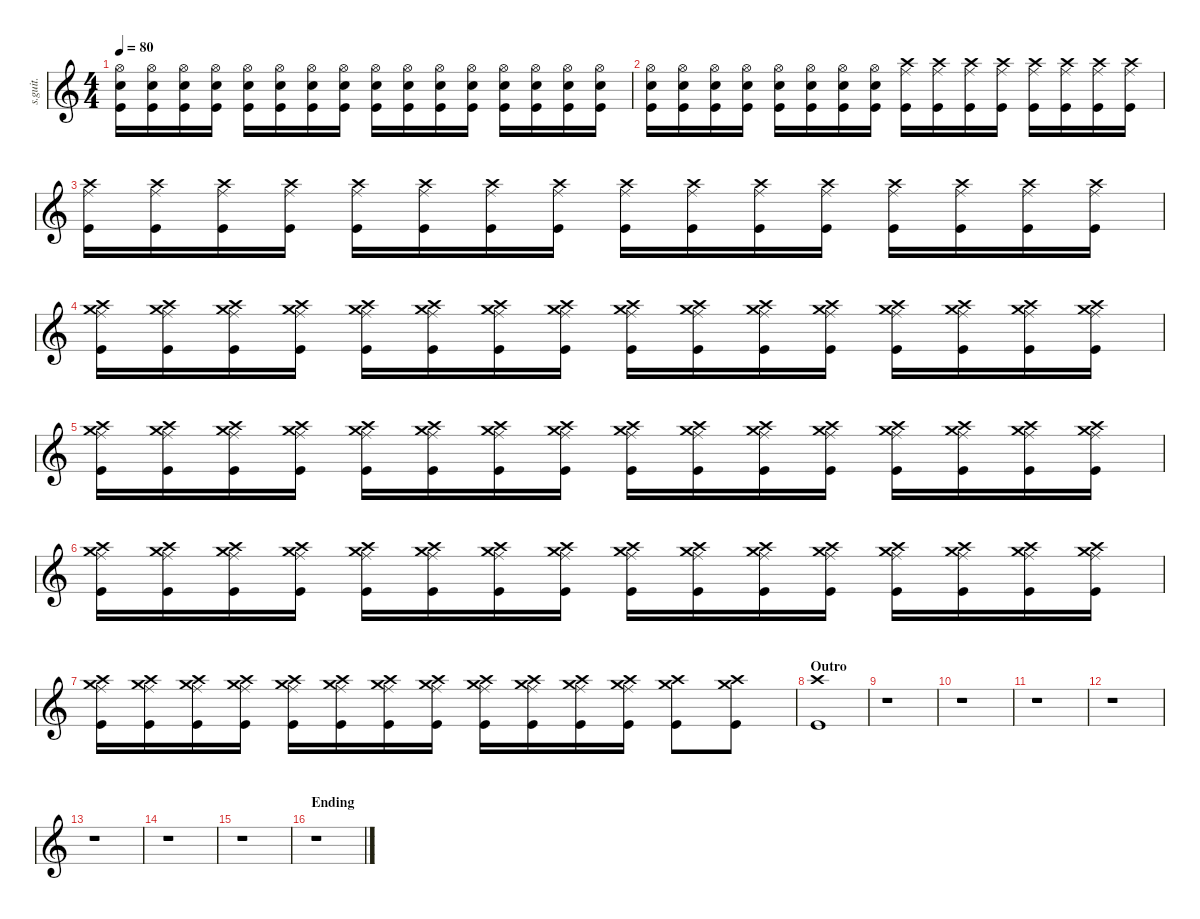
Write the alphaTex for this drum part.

\defaultSystemsLayout 4
\hideDynamics
\bracketExtendMode nobrackets
\track ("Drums (Wilson)" "s.guit.") {instrument percussion}
\staff {score}
\articulation defaults
\ts (4 4)
\tempo 80
\clef g2
\ks c
("Hi-Hat (open)" "Snare (hit) 2" "Kick (hit)").16{lyrics (0 "") lyrics (1 "") lyrics (2 "") lyrics (3 "") lyrics (4 "") dy mf} ("Hi-Hat (open)" "Snare (hit) 2" "Kick (hit)").16{lyrics (0 "") lyrics (1 "") lyrics (2 "") lyrics (3 "") lyrics (4 "")} ("Hi-Hat (open)" "Snare (hit) 2" "Kick (hit)").16{lyrics (0 "") lyrics (1 "") lyrics (2 "") lyrics (3 "") lyrics (4 "")} ("Hi-Hat (open)" "Snare (hit) 2" "Kick (hit)").16{lyrics (0 "") lyrics (1 "") lyrics (2 "") lyrics (3 "") lyrics (4 "")} ("Hi-Hat (open)" "Snare (hit) 2" "Kick (hit)").16{lyrics (0 "") lyrics (1 "") lyrics (2 "") lyrics (3 "") lyrics (4 "")} ("Hi-Hat (open)" "Snare (hit) 2" "Kick (hit)").16{lyrics (0 "") lyrics (1 "") lyrics (2 "") lyrics (3 "") lyrics (4 "")} ("Hi-Hat (open)" "Snare (hit) 2" "Kick (hit)").16{lyrics (0 "") lyrics (1 "") lyrics (2 "") lyrics (3 "") lyrics (4 "")} ("Hi-Hat (open)" "Snare (hit) 2" "Kick (hit)").16{lyrics (0 "") lyrics (1 "") lyrics (2 "") lyrics (3 "") lyrics (4 "")} ("Hi-Hat (open)" "Snare (hit) 2" "Kick (hit)").16{lyrics (0 "") lyrics (1 "") lyrics (2 "") lyrics (3 "") lyrics (4 "") dy f} ("Hi-Hat (open)" "Snare (hit) 2" "Kick (hit)").16{lyrics (0 "") lyrics (1 "") lyrics (2 "") lyrics (3 "") lyrics (4 "")} ("Hi-Hat (open)" "Snare (hit) 2" "Kick (hit)").16{lyrics (0 "") lyrics (1 "") lyrics (2 "") lyrics (3 "") lyrics (4 "")} ("Hi-Hat (open)" "Snare (hit) 2" "Kick (hit)").16{lyrics (0 "") lyrics (1 "") lyrics (2 "") lyrics (3 "") lyrics (4 "")} ("Hi-Hat (open)" "Snare (hit) 2" "Kick (hit)").16{lyrics (0 "") lyrics (1 "") lyrics (2 "") lyrics (3 "") lyrics (4 "")} ("Hi-Hat (open)" "Snare (hit) 2" "Kick (hit)").16{lyrics (0 "") lyrics (1 "") lyrics (2 "") lyrics (3 "") lyrics (4 "")} ("Hi-Hat (open)" "Snare (hit) 2" "Kick (hit)").16{lyrics (0 "") lyrics (1 "") lyrics (2 "") lyrics (3 "") lyrics (4 "")} ("Hi-Hat (open)" "Snare (hit) 2" "Kick (hit)").16{lyrics (0 "") lyrics (1 "") lyrics (2 "") lyrics (3 "") lyrics (4 "")} |
("Hi-Hat (open)" "Snare (hit) 2" "Kick (hit)").16{lyrics (0 "") lyrics (1 "") lyrics (2 "") lyrics (3 "") lyrics (4 "")} ("Hi-Hat (open)" "Snare (hit) 2" "Kick (hit)").16{lyrics (0 "") lyrics (1 "") lyrics (2 "") lyrics (3 "") lyrics (4 "")} ("Hi-Hat (open)" "Snare (hit) 2" "Kick (hit)").16{lyrics (0 "") lyrics (1 "") lyrics (2 "") lyrics (3 "") lyrics (4 "")} ("Hi-Hat (open)" "Snare (hit) 2" "Kick (hit)").16{lyrics (0 "") lyrics (1 "") lyrics (2 "") lyrics (3 "") lyrics (4 "")} ("Hi-Hat (open)" "Snare (hit) 2" "Kick (hit)").16{lyrics (0 "") lyrics (1 "") lyrics (2 "") lyrics (3 "") lyrics (4 "")} ("Hi-Hat (open)" "Snare (hit) 2" "Kick (hit)").16{lyrics (0 "") lyrics (1 "") lyrics (2 "") lyrics (3 "") lyrics (4 "")} ("Hi-Hat (open)" "Snare (hit) 2" "Kick (hit)").16{lyrics (0 "") lyrics (1 "") lyrics (2 "") lyrics (3 "") lyrics (4 "")} ("Hi-Hat (open)" "Snare (hit) 2" "Kick (hit)").16{lyrics (0 "") lyrics (1 "") lyrics (2 "") lyrics (3 "") lyrics (4 "")} ("Crash high (hit)" "Ride (middle)" "Kick (hit)").16{lyrics (0 "") lyrics (1 "") lyrics (2 "") lyrics (3 "") lyrics (4 "") dy p} ("Crash high (hit)" "Ride (middle)" "Kick (hit)").16{lyrics (0 "") lyrics (1 "") lyrics (2 "") lyrics (3 "") lyrics (4 "")} ("Crash high (hit)" "Ride (middle)" "Kick (hit)").16{lyrics (0 "") lyrics (1 "") lyrics (2 "") lyrics (3 "") lyrics (4 "")} ("Crash high (hit)" "Ride (middle)" "Kick (hit)").16{lyrics (0 "") lyrics (1 "") lyrics (2 "") lyrics (3 "") lyrics (4 "")} ("Crash high (hit)" "Ride (middle)" "Kick (hit)").16{lyrics (0 "") lyrics (1 "") lyrics (2 "") lyrics (3 "") lyrics (4 "") dy mp} ("Crash high (hit)" "Ride (middle)" "Kick (hit)").16{lyrics (0 "") lyrics (1 "") lyrics (2 "") lyrics (3 "") lyrics (4 "")} ("Crash high (hit)" "Ride (middle)" "Kick (hit)").16{lyrics (0 "") lyrics (1 "") lyrics (2 "") lyrics (3 "") lyrics (4 "")} ("Crash high (hit)" "Ride (middle)" "Kick (hit)").16{lyrics (0 "") lyrics (1 "") lyrics (2 "") lyrics (3 "") lyrics (4 "")} |
("Crash high (hit)" "Ride (middle)" "Kick (hit)").16{lyrics (0 "") lyrics (1 "") lyrics (2 "") lyrics (3 "") lyrics (4 "") dy mf} ("Crash high (hit)" "Ride (middle)" "Kick (hit)").16{lyrics (0 "") lyrics (1 "") lyrics (2 "") lyrics (3 "") lyrics (4 "")} ("Crash high (hit)" "Ride (middle)" "Kick (hit)").16{lyrics (0 "") lyrics (1 "") lyrics (2 "") lyrics (3 "") lyrics (4 "")} ("Crash high (hit)" "Ride (middle)" "Kick (hit)").16{lyrics (0 "") lyrics (1 "") lyrics (2 "") lyrics (3 "") lyrics (4 "")} ("Crash high (hit)" "Ride (middle)" "Kick (hit)").16{lyrics (0 "") lyrics (1 "") lyrics (2 "") lyrics (3 "") lyrics (4 "")} ("Crash high (hit)" "Ride (middle)" "Kick (hit)").16{lyrics (0 "") lyrics (1 "") lyrics (2 "") lyrics (3 "") lyrics (4 "")} ("Crash high (hit)" "Ride (middle)" "Kick (hit)").16{lyrics (0 "") lyrics (1 "") lyrics (2 "") lyrics (3 "") lyrics (4 "")} ("Crash high (hit)" "Ride (middle)" "Kick (hit)").16{lyrics (0 "") lyrics (1 "") lyrics (2 "") lyrics (3 "") lyrics (4 "")} ("Crash high (hit)" "Ride (middle)" "Kick (hit)").16{lyrics (0 "") lyrics (1 "") lyrics (2 "") lyrics (3 "") lyrics (4 "") dy f} ("Crash high (hit)" "Ride (middle)" "Kick (hit)").16{lyrics (0 "") lyrics (1 "") lyrics (2 "") lyrics (3 "") lyrics (4 "")} ("Crash high (hit)" "Ride (middle)" "Kick (hit)").16{lyrics (0 "") lyrics (1 "") lyrics (2 "") lyrics (3 "") lyrics (4 "")} ("Crash high (hit)" "Ride (middle)" "Kick (hit)").16{lyrics (0 "") lyrics (1 "") lyrics (2 "") lyrics (3 "") lyrics (4 "")} ("Crash high (hit)" "Ride (middle)" "Kick (hit)").16{lyrics (0 "") lyrics (1 "") lyrics (2 "") lyrics (3 "") lyrics (4 "")} ("Crash high (hit)" "Ride (middle)" "Kick (hit)").16{lyrics (0 "") lyrics (1 "") lyrics (2 "") lyrics (3 "") lyrics (4 "")} ("Crash high (hit)" "Ride (middle)" "Kick (hit)").16{lyrics (0 "") lyrics (1 "") lyrics (2 "") lyrics (3 "") lyrics (4 "")} ("Crash high (hit)" "Ride (middle)" "Kick (hit)").16{lyrics (0 "") lyrics (1 "") lyrics (2 "") lyrics (3 "") lyrics (4 "")} |
("Crash high (hit)" "Ride (middle)" "Crash medium (hit)" "Kick (hit)").16{lyrics (0 "") lyrics (1 "") lyrics (2 "") lyrics (3 "") lyrics (4 "")} ("Crash high (hit)" "Ride (middle)" "Crash medium (hit)" "Kick (hit)").16{lyrics (0 "") lyrics (1 "") lyrics (2 "") lyrics (3 "") lyrics (4 "")} ("Crash high (hit)" "Ride (middle)" "Crash medium (hit)" "Kick (hit)").16{lyrics (0 "") lyrics (1 "") lyrics (2 "") lyrics (3 "") lyrics (4 "")} ("Crash high (hit)" "Ride (middle)" "Crash medium (hit)" "Kick (hit)").16{lyrics (0 "") lyrics (1 "") lyrics (2 "") lyrics (3 "") lyrics (4 "")} ("Crash high (hit)" "Ride (middle)" "Crash medium (hit)" "Kick (hit)").16{lyrics (0 "") lyrics (1 "") lyrics (2 "") lyrics (3 "") lyrics (4 "")} ("Crash high (hit)" "Ride (middle)" "Crash medium (hit)" "Kick (hit)").16{lyrics (0 "") lyrics (1 "") lyrics (2 "") lyrics (3 "") lyrics (4 "")} ("Crash high (hit)" "Ride (middle)" "Crash medium (hit)" "Kick (hit)").16{lyrics (0 "") lyrics (1 "") lyrics (2 "") lyrics (3 "") lyrics (4 "")} ("Crash high (hit)" "Ride (middle)" "Crash medium (hit)" "Kick (hit)").16{lyrics (0 "") lyrics (1 "") lyrics (2 "") lyrics (3 "") lyrics (4 "")} ("Crash high (hit)" "Ride (middle)" "Crash medium (hit)" "Kick (hit)").16{lyrics (0 "") lyrics (1 "") lyrics (2 "") lyrics (3 "") lyrics (4 "")} ("Crash high (hit)" "Ride (middle)" "Crash medium (hit)" "Kick (hit)").16{lyrics (0 "") lyrics (1 "") lyrics (2 "") lyrics (3 "") lyrics (4 "")} ("Crash high (hit)" "Ride (middle)" "Crash medium (hit)" "Kick (hit)").16{lyrics (0 "") lyrics (1 "") lyrics (2 "") lyrics (3 "") lyrics (4 "")} ("Crash high (hit)" "Ride (middle)" "Crash medium (hit)" "Kick (hit)").16{lyrics (0 "") lyrics (1 "") lyrics (2 "") lyrics (3 "") lyrics (4 "")} ("Crash high (hit)" "Ride (middle)" "Crash medium (hit)" "Kick (hit)").16{lyrics (0 "") lyrics (1 "") lyrics (2 "") lyrics (3 "") lyrics (4 "")} ("Crash high (hit)" "Ride (middle)" "Crash medium (hit)" "Kick (hit)").16{lyrics (0 "") lyrics (1 "") lyrics (2 "") lyrics (3 "") lyrics (4 "")} ("Crash high (hit)" "Ride (middle)" "Crash medium (hit)" "Kick (hit)").16{lyrics (0 "") lyrics (1 "") lyrics (2 "") lyrics (3 "") lyrics (4 "")} ("Crash high (hit)" "Ride (middle)" "Crash medium (hit)" "Kick (hit)").16{lyrics (0 "") lyrics (1 "") lyrics (2 "") lyrics (3 "") lyrics (4 "")} |
("Crash high (hit)" "Ride (middle)" "Crash medium (hit)" "Kick (hit)").16{lyrics (0 "") lyrics (1 "") lyrics (2 "") lyrics (3 "") lyrics (4 "")} ("Crash high (hit)" "Ride (middle)" "Crash medium (hit)" "Kick (hit)").16{lyrics (0 "") lyrics (1 "") lyrics (2 "") lyrics (3 "") lyrics (4 "")} ("Crash high (hit)" "Ride (middle)" "Crash medium (hit)" "Kick (hit)").16{lyrics (0 "") lyrics (1 "") lyrics (2 "") lyrics (3 "") lyrics (4 "")} ("Crash high (hit)" "Ride (middle)" "Crash medium (hit)" "Kick (hit)").16{lyrics (0 "") lyrics (1 "") lyrics (2 "") lyrics (3 "") lyrics (4 "")} ("Crash high (hit)" "Ride (middle)" "Crash medium (hit)" "Kick (hit)").16{lyrics (0 "") lyrics (1 "") lyrics (2 "") lyrics (3 "") lyrics (4 "")} ("Crash high (hit)" "Ride (middle)" "Crash medium (hit)" "Kick (hit)").16{lyrics (0 "") lyrics (1 "") lyrics (2 "") lyrics (3 "") lyrics (4 "")} ("Crash high (hit)" "Ride (middle)" "Crash medium (hit)" "Kick (hit)").16{lyrics (0 "") lyrics (1 "") lyrics (2 "") lyrics (3 "") lyrics (4 "")} ("Crash high (hit)" "Ride (middle)" "Crash medium (hit)" "Kick (hit)").16{lyrics (0 "") lyrics (1 "") lyrics (2 "") lyrics (3 "") lyrics (4 "")} ("Crash high (hit)" "Ride (middle)" "Crash medium (hit)" "Kick (hit)").16{lyrics (0 "") lyrics (1 "") lyrics (2 "") lyrics (3 "") lyrics (4 "")} ("Crash high (hit)" "Ride (middle)" "Crash medium (hit)" "Kick (hit)").16{lyrics (0 "") lyrics (1 "") lyrics (2 "") lyrics (3 "") lyrics (4 "")} ("Crash high (hit)" "Ride (middle)" "Crash medium (hit)" "Kick (hit)").16{lyrics (0 "") lyrics (1 "") lyrics (2 "") lyrics (3 "") lyrics (4 "")} ("Crash high (hit)" "Ride (middle)" "Crash medium (hit)" "Kick (hit)").16{lyrics (0 "") lyrics (1 "") lyrics (2 "") lyrics (3 "") lyrics (4 "")} ("Crash high (hit)" "Ride (middle)" "Crash medium (hit)" "Kick (hit)").16{lyrics (0 "") lyrics (1 "") lyrics (2 "") lyrics (3 "") lyrics (4 "")} ("Crash high (hit)" "Ride (middle)" "Crash medium (hit)" "Kick (hit)").16{lyrics (0 "") lyrics (1 "") lyrics (2 "") lyrics (3 "") lyrics (4 "")} ("Crash high (hit)" "Ride (middle)" "Crash medium (hit)" "Kick (hit)").16{lyrics (0 "") lyrics (1 "") lyrics (2 "") lyrics (3 "") lyrics (4 "")} ("Crash high (hit)" "Ride (middle)" "Crash medium (hit)" "Kick (hit)").16{lyrics (0 "") lyrics (1 "") lyrics (2 "") lyrics (3 "") lyrics (4 "")} |
("Crash high (hit)" "Ride (middle)" "Crash medium (hit)" "Kick (hit)").16{lyrics (0 "") lyrics (1 "") lyrics (2 "") lyrics (3 "") lyrics (4 "")} ("Crash high (hit)" "Ride (middle)" "Crash medium (hit)" "Kick (hit)").16{lyrics (0 "") lyrics (1 "") lyrics (2 "") lyrics (3 "") lyrics (4 "")} ("Crash high (hit)" "Ride (middle)" "Crash medium (hit)" "Kick (hit)").16{lyrics (0 "") lyrics (1 "") lyrics (2 "") lyrics (3 "") lyrics (4 "")} ("Crash high (hit)" "Ride (middle)" "Crash medium (hit)" "Kick (hit)").16{lyrics (0 "") lyrics (1 "") lyrics (2 "") lyrics (3 "") lyrics (4 "")} ("Crash high (hit)" "Ride (middle)" "Crash medium (hit)" "Kick (hit)").16{lyrics (0 "") lyrics (1 "") lyrics (2 "") lyrics (3 "") lyrics (4 "")} ("Crash high (hit)" "Ride (middle)" "Crash medium (hit)" "Kick (hit)").16{lyrics (0 "") lyrics (1 "") lyrics (2 "") lyrics (3 "") lyrics (4 "")} ("Crash high (hit)" "Ride (middle)" "Crash medium (hit)" "Kick (hit)").16{lyrics (0 "") lyrics (1 "") lyrics (2 "") lyrics (3 "") lyrics (4 "")} ("Crash high (hit)" "Ride (middle)" "Crash medium (hit)" "Kick (hit)").16{lyrics (0 "") lyrics (1 "") lyrics (2 "") lyrics (3 "") lyrics (4 "")} ("Crash high (hit)" "Ride (middle)" "Crash medium (hit)" "Kick (hit)").16{lyrics (0 "") lyrics (1 "") lyrics (2 "") lyrics (3 "") lyrics (4 "")} ("Crash high (hit)" "Ride (middle)" "Crash medium (hit)" "Kick (hit)").16{lyrics (0 "") lyrics (1 "") lyrics (2 "") lyrics (3 "") lyrics (4 "")} ("Crash high (hit)" "Ride (middle)" "Crash medium (hit)" "Kick (hit)").16{lyrics (0 "") lyrics (1 "") lyrics (2 "") lyrics (3 "") lyrics (4 "")} ("Crash high (hit)" "Ride (middle)" "Crash medium (hit)" "Kick (hit)").16{lyrics (0 "") lyrics (1 "") lyrics (2 "") lyrics (3 "") lyrics (4 "")} ("Crash high (hit)" "Ride (middle)" "Crash medium (hit)" "Kick (hit)").16{lyrics (0 "") lyrics (1 "") lyrics (2 "") lyrics (3 "") lyrics (4 "")} ("Crash high (hit)" "Ride (middle)" "Crash medium (hit)" "Kick (hit)").16{lyrics (0 "") lyrics (1 "") lyrics (2 "") lyrics (3 "") lyrics (4 "")} ("Crash high (hit)" "Ride (middle)" "Crash medium (hit)" "Kick (hit)").16{lyrics (0 "") lyrics (1 "") lyrics (2 "") lyrics (3 "") lyrics (4 "")} ("Crash high (hit)" "Ride (middle)" "Crash medium (hit)" "Kick (hit)").16{lyrics (0 "") lyrics (1 "") lyrics (2 "") lyrics (3 "") lyrics (4 "")} |
("Crash high (hit)" "Ride (middle)" "Crash medium (hit)" "Kick (hit)").16{lyrics (0 "") lyrics (1 "") lyrics (2 "") lyrics (3 "") lyrics (4 "")} ("Crash high (hit)" "Ride (middle)" "Crash medium (hit)" "Kick (hit)").16{lyrics (0 "") lyrics (1 "") lyrics (2 "") lyrics (3 "") lyrics (4 "")} ("Crash high (hit)" "Ride (middle)" "Crash medium (hit)" "Kick (hit)").16{lyrics (0 "") lyrics (1 "") lyrics (2 "") lyrics (3 "") lyrics (4 "")} ("Crash high (hit)" "Ride (middle)" "Crash medium (hit)" "Kick (hit)").16{lyrics (0 "") lyrics (1 "") lyrics (2 "") lyrics (3 "") lyrics (4 "")} ("Crash high (hit)" "Ride (middle)" "Crash medium (hit)" "Kick (hit)").16{lyrics (0 "") lyrics (1 "") lyrics (2 "") lyrics (3 "") lyrics (4 "")} ("Crash high (hit)" "Ride (middle)" "Crash medium (hit)" "Kick (hit)").16{lyrics (0 "") lyrics (1 "") lyrics (2 "") lyrics (3 "") lyrics (4 "")} ("Crash high (hit)" "Ride (middle)" "Crash medium (hit)" "Kick (hit)").16{lyrics (0 "") lyrics (1 "") lyrics (2 "") lyrics (3 "") lyrics (4 "")} ("Crash high (hit)" "Ride (middle)" "Crash medium (hit)" "Kick (hit)").16{lyrics (0 "") lyrics (1 "") lyrics (2 "") lyrics (3 "") lyrics (4 "")} ("Crash high (hit)" "Ride (middle)" "Crash medium (hit)" "Kick (hit)").16{lyrics (0 "") lyrics (1 "") lyrics (2 "") lyrics (3 "") lyrics (4 "")} ("Crash high (hit)" "Ride (middle)" "Crash medium (hit)" "Kick (hit)").16{lyrics (0 "") lyrics (1 "") lyrics (2 "") lyrics (3 "") lyrics (4 "")} ("Crash high (hit)" "Ride (middle)" "Crash medium (hit)" "Kick (hit)").16{lyrics (0 "") lyrics (1 "") lyrics (2 "") lyrics (3 "") lyrics (4 "")} ("Crash high (hit)" "Ride (middle)" "Crash medium (hit)" "Kick (hit)").16{lyrics (0 "") lyrics (1 "") lyrics (2 "") lyrics (3 "") lyrics (4 "")} ("Crash high (hit)" "Crash medium (hit)" "Kick (hit)").8{lyrics (0 "") lyrics (1 "") lyrics (2 "") lyrics (3 "") lyrics (4 "")} ("Crash high (hit)" "Crash medium (hit)" "Kick (hit)").8{lyrics (0 "") lyrics (1 "") lyrics (2 "") lyrics (3 "") lyrics (4 "")} |
\section ("" "Outro")
("Crash high (hit)" "Kick (hit)").1{lyrics (0 "") lyrics (1 "") lyrics (2 "") lyrics (3 "") lyrics (4 "")} |
r.1 |
r.1 |
r.1 |
r.1 |
r.1 |
r.1 |
r.1 |
\section ("" "Ending")
r.1
